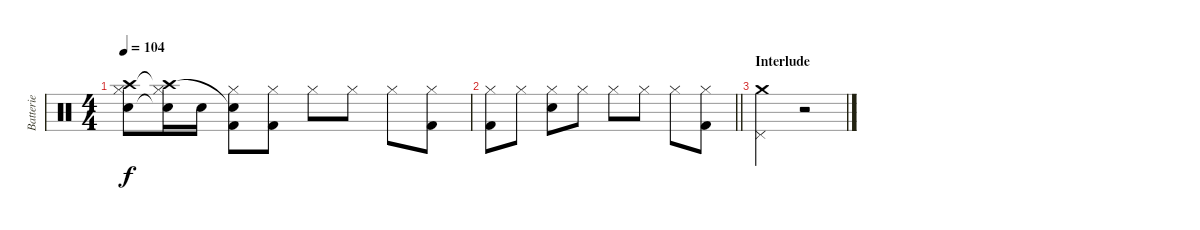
\track ("Batterie" "Batterie") {instrument percussion}
\staff {score}
\articulation defaults
\ts (4 4)
\tempo 104
\clef neutral
\ks c
("Hi-Hat (closed)" "Crash high (hit)" "Electric Snare (hit)").8{dy f} ("Hi-Hat (closed)" "Crash high (hit)"{t} "Electric Snare (hit)"{t}).16 "Electric Snare (hit)".16 ("Hi-Hat (closed)" "Snare (hit) 2"{t} "Kick (hit) 2").8 ("Hi-Hat (closed)" "Kick (hit) 2").8 "Hi-Hat (closed)".8 "Hi-Hat (closed)".8 "Hi-Hat (closed)".8 ("Hi-Hat (closed)" "Kick (hit) 2").8 |
\barLineRight lightlight
("Hi-Hat (closed)" "Kick (hit) 2").8 "Hi-Hat (closed)".8 ("Hi-Hat (closed)" "Electric Snare (hit)").8 "Hi-Hat (closed)".8 "Hi-Hat (closed)".8 "Hi-Hat (closed)".8 "Hi-Hat (closed)".8 ("Hi-Hat (closed)" "Kick (hit) 2").8 |
\section ("" "Interlude")
("Crash medium (hit)" "Pedal Hi-Hat (hit)").2 r.2
